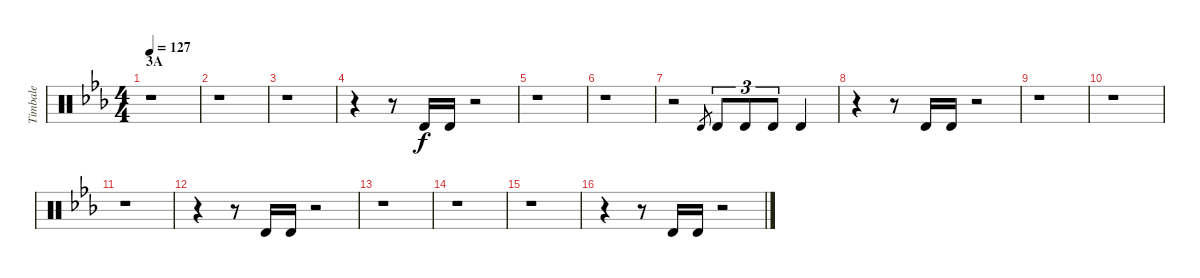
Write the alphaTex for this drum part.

\track ("Timbale" "Timbale") {instrument percussion}
\staff {score}
\articulation defaults
\ts (4 4)
\section ("" "3A")
\tempo 127
\clef neutral
\ks eb
r.1{dy f} |
r.1 |
r.1 |
r.4 r.8 "Timbale high (hit)".16 "Timbale high (hit)".16 r.2 |
r.1 |
r.1 |
r.2 "Timbale high (hit)".8{gr} "Timbale high (hit)".8{tu (3 2)} "Timbale high (hit)".8{tu (3 2)} "Timbale high (hit)".8{tu (3 2)} "Timbale high (hit)".4 |
r.4 r.8 "Timbale high (hit)".16 "Timbale high (hit)".16 r.2 |
r.1 |
r.1 |
r.1 |
r.4 r.8 "Timbale high (hit)".16 "Timbale high (hit)".16 r.2 |
r.1 |
r.1 |
r.1 |
r.4 r.8 "Timbale high (hit)".16 "Timbale high (hit)".16 r.2
